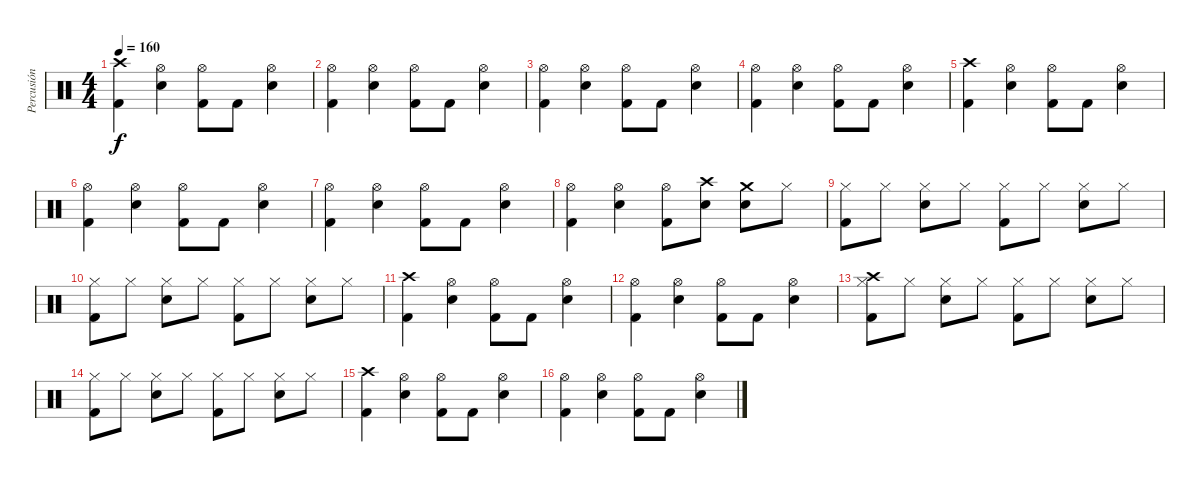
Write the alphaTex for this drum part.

\track ("Percusión" "Percusión") {instrument percussion}
\staff {score}
\articulation defaults
\ts (4 4)
\tempo 160
\clef neutral
\ks c
("Crash high (hit)" "Kick (hit) 2").4{dy f} ("Hi-Hat (open)" "Electric Snare (hit)").4 ("Hi-Hat (open)" "Kick (hit) 2").8 "Kick (hit) 2".8 ("Electric Snare (hit)" "Hi-Hat (open)").4 |
("Hi-Hat (open)" "Kick (hit) 2").4 ("Hi-Hat (open)" "Snare (hit) 2").4 ("Hi-Hat (open)" "Kick (hit) 2").8 "Kick (hit) 2".8 ("Hi-Hat (open)" "Electric Snare (hit)").4 |
("Hi-Hat (open)" "Kick (hit) 2").4 ("Hi-Hat (open)" "Snare (hit) 2").4 ("Hi-Hat (open)" "Kick (hit) 2").8 "Kick (hit) 2".8 ("Hi-Hat (open)" "Electric Snare (hit)").4 |
("Hi-Hat (open)" "Kick (hit) 2").4 ("Hi-Hat (open)" "Snare (hit) 2").4 ("Hi-Hat (open)" "Kick (hit) 2").8 "Kick (hit) 2".8 ("Hi-Hat (open)" "Electric Snare (hit)").4 |
("Crash high (hit)" "Kick (hit) 2").4 ("Hi-Hat (open)" "Electric Snare (hit)").4 ("Hi-Hat (open)" "Kick (hit) 2").8 "Kick (hit) 2".8 ("Electric Snare (hit)" "Hi-Hat (open)").4 |
("Hi-Hat (open)" "Kick (hit) 2").4 ("Hi-Hat (open)" "Snare (hit) 2").4 ("Hi-Hat (open)" "Kick (hit) 2").8 "Kick (hit) 2".8 ("Hi-Hat (open)" "Electric Snare (hit)").4 |
("Hi-Hat (open)" "Kick (hit) 2").4 ("Hi-Hat (open)" "Snare (hit) 2").4 ("Hi-Hat (open)" "Kick (hit) 2").8 "Kick (hit) 2".8 ("Hi-Hat (open)" "Electric Snare (hit)").4 |
("Hi-Hat (open)" "Kick (hit) 2").4 ("Hi-Hat (open)" "Snare (hit) 2").4 ("Hi-Hat (open)" "Kick (hit) 2").8 ("Electric Snare (hit)" "Crash high (hit)").8 ("Electric Snare (hit)" "Crash medium (hit)").8 "Hi-Hat (closed)".8 |
("Hi-Hat (closed)" "Kick (hit) 2").8 "Hi-Hat (closed)".8 ("Hi-Hat (closed)" "Electric Snare (hit)").8 "Hi-Hat (closed)".8 ("Hi-Hat (closed)" "Kick (hit) 2").8 "Hi-Hat (closed)".8 ("Hi-Hat (closed)" "Electric Snare (hit)").8 "Hi-Hat (closed)".8 |
("Hi-Hat (closed)" "Kick (hit) 2").8 "Hi-Hat (closed)".8 ("Hi-Hat (closed)" "Electric Snare (hit)").8 "Hi-Hat (closed)".8 ("Hi-Hat (closed)" "Kick (hit) 2").8 "Hi-Hat (closed)".8 ("Hi-Hat (closed)" "Electric Snare (hit)").8 "Hi-Hat (closed)".8 |
("Crash high (hit)" "Kick (hit) 2").4 ("Hi-Hat (open)" "Electric Snare (hit)").4 ("Hi-Hat (open)" "Kick (hit) 2").8 "Kick (hit) 2".8 ("Electric Snare (hit)" "Hi-Hat (open)").4 |
("Hi-Hat (open)" "Kick (hit) 2").4 ("Hi-Hat (open)" "Snare (hit) 2").4 ("Hi-Hat (open)" "Kick (hit) 2").8 "Kick (hit) 2".8 ("Hi-Hat (open)" "Electric Snare (hit)").4 |
("Hi-Hat (closed)" "Kick (hit) 2" "Crash high (hit)").8 "Hi-Hat (closed)".8 ("Hi-Hat (closed)" "Electric Snare (hit)").8 "Hi-Hat (closed)".8 ("Hi-Hat (closed)" "Kick (hit) 2").8 "Hi-Hat (closed)".8 ("Hi-Hat (closed)" "Electric Snare (hit)").8 "Hi-Hat (closed)".8 |
("Hi-Hat (closed)" "Kick (hit) 2").8 "Hi-Hat (closed)".8 ("Hi-Hat (closed)" "Electric Snare (hit)").8 "Hi-Hat (closed)".8 ("Hi-Hat (closed)" "Kick (hit) 2").8 "Hi-Hat (closed)".8 ("Hi-Hat (closed)" "Electric Snare (hit)").8 "Hi-Hat (closed)".8 |
("Crash high (hit)" "Kick (hit) 2").4 ("Hi-Hat (open)" "Electric Snare (hit)").4 ("Hi-Hat (open)" "Kick (hit) 2").8 "Kick (hit) 2".8 ("Electric Snare (hit)" "Hi-Hat (open)").4 |
("Hi-Hat (open)" "Kick (hit) 2").4 ("Hi-Hat (open)" "Snare (hit) 2").4 ("Hi-Hat (open)" "Kick (hit) 2").8 "Kick (hit) 2".8 ("Hi-Hat (open)" "Electric Snare (hit)").4
